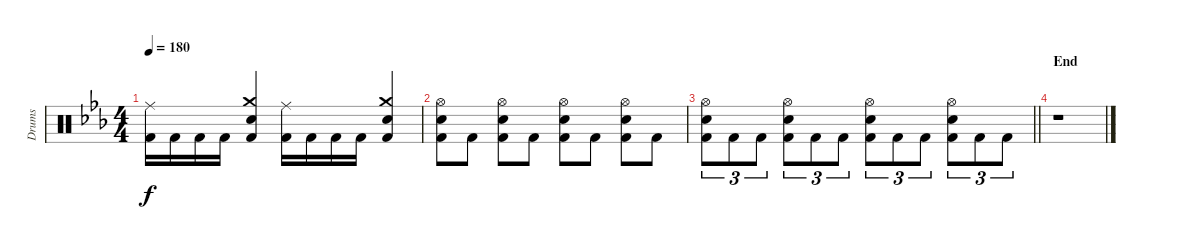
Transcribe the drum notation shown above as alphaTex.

\track ("Drums" "Drums") {instrument percussion}
\staff {score}
\articulation defaults
\ts (4 4)
\tempo 180
\clef neutral
\ks eb
("Ride (middle)" "Kick (hit) 2").16{dy f} "Kick (hit) 2".16 "Kick (hit) 2".16 "Kick (hit) 2".16 ("Crash medium (hit)" "Snare (hit) 2" "Kick (hit) 2").4 ("Ride (middle)" "Kick (hit) 2").16 "Kick (hit) 2".16 "Kick (hit) 2".16 "Kick (hit) 2".16 ("Crash medium (hit)" "Snare (hit) 2" "Kick (hit) 2").4 |
("Hi-Hat (open)" "Snare (hit) 2" "Kick (hit) 2").8 "Kick (hit) 2".8 ("Hi-Hat (open)" "Snare (hit) 2" "Kick (hit) 2").8 "Kick (hit) 2".8 ("Hi-Hat (open)" "Snare (hit) 2" "Kick (hit) 2").8 "Kick (hit) 2".8 ("Hi-Hat (open)" "Snare (hit) 2" "Kick (hit) 2").8 "Kick (hit) 2".8 |
\barLineRight lightlight
("Hi-Hat (open)" "Snare (hit) 2" "Kick (hit) 2").8{tu (3 2)} "Kick (hit) 2".8{tu (3 2)} "Kick (hit) 2".8{tu (3 2)} ("Hi-Hat (open)" "Snare (hit) 2" "Kick (hit) 2").8{tu (3 2)} "Kick (hit) 2".8{tu (3 2)} "Kick (hit) 2".8{tu (3 2)} ("Hi-Hat (open)" "Snare (hit) 2" "Kick (hit) 2").8{tu (3 2)} "Kick (hit) 2".8{tu (3 2)} "Kick (hit) 2".8{tu (3 2)} ("Hi-Hat (open)" "Snare (hit) 2" "Kick (hit) 2").8{tu (3 2)} "Kick (hit) 2".8{tu (3 2)} "Kick (hit) 2".8{tu (3 2)} |
\section ("" "End")
r.1
